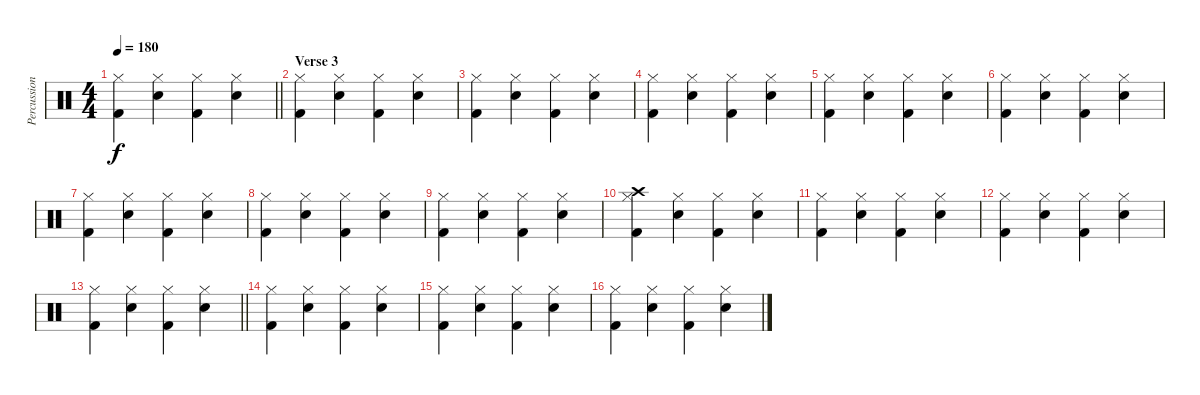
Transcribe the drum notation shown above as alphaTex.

\track ("Percussion" "Percussion") {instrument percussion}
\staff {score}
\articulation defaults
\ts (4 4)
\tempo 180
\clef neutral
\barLineRight lightlight
\ks c
("Hi-Hat (closed)" "Kick (hit) 2").4{dy f} ("Hi-Hat (closed)" "Electric Snare (hit)").4 ("Hi-Hat (closed)" "Kick (hit) 2").4 ("Hi-Hat (closed)" "Electric Snare (hit)").4 |
\section ("" "Verse 3")
("Hi-Hat (closed)" "Kick (hit) 2").4 ("Hi-Hat (closed)" "Electric Snare (hit)").4 ("Hi-Hat (closed)" "Kick (hit) 2").4 ("Hi-Hat (closed)" "Electric Snare (hit)").4 |
("Hi-Hat (closed)" "Kick (hit) 2").4 ("Hi-Hat (closed)" "Electric Snare (hit)").4 ("Hi-Hat (closed)" "Kick (hit) 2").4 ("Hi-Hat (closed)" "Electric Snare (hit)").4 |
("Hi-Hat (closed)" "Kick (hit) 2").4 ("Hi-Hat (closed)" "Electric Snare (hit)").4 ("Hi-Hat (closed)" "Kick (hit) 2").4 ("Hi-Hat (closed)" "Electric Snare (hit)").4 |
("Hi-Hat (closed)" "Kick (hit) 2").4 ("Hi-Hat (closed)" "Electric Snare (hit)").4 ("Hi-Hat (closed)" "Kick (hit) 2").4 ("Hi-Hat (closed)" "Electric Snare (hit)").4 |
("Hi-Hat (closed)" "Kick (hit) 2").4 ("Hi-Hat (closed)" "Electric Snare (hit)").4 ("Hi-Hat (closed)" "Kick (hit) 2").4 ("Hi-Hat (closed)" "Electric Snare (hit)").4 |
("Hi-Hat (closed)" "Kick (hit) 2").4 ("Hi-Hat (closed)" "Electric Snare (hit)").4 ("Hi-Hat (closed)" "Kick (hit) 2").4 ("Hi-Hat (closed)" "Electric Snare (hit)").4 |
("Hi-Hat (closed)" "Kick (hit) 2").4 ("Hi-Hat (closed)" "Electric Snare (hit)").4 ("Hi-Hat (closed)" "Kick (hit) 2").4 ("Hi-Hat (closed)" "Electric Snare (hit)").4 |
("Hi-Hat (closed)" "Kick (hit) 2").4 ("Hi-Hat (closed)" "Electric Snare (hit)").4 ("Hi-Hat (closed)" "Kick (hit) 2").4 ("Hi-Hat (closed)" "Electric Snare (hit)").4 |
("Hi-Hat (closed)" "Crash high (hit)" "Kick (hit) 2").4 ("Hi-Hat (closed)" "Electric Snare (hit)").4 ("Hi-Hat (closed)" "Kick (hit) 2").4 ("Hi-Hat (closed)" "Electric Snare (hit)").4 |
("Hi-Hat (closed)" "Kick (hit) 2").4 ("Hi-Hat (closed)" "Electric Snare (hit)").4 ("Hi-Hat (closed)" "Kick (hit) 2").4 ("Hi-Hat (closed)" "Electric Snare (hit)").4 |
("Hi-Hat (closed)" "Kick (hit) 2").4 ("Hi-Hat (closed)" "Electric Snare (hit)").4 ("Hi-Hat (closed)" "Kick (hit) 2").4 ("Hi-Hat (closed)" "Electric Snare (hit)").4 |
\barLineRight lightlight
("Hi-Hat (closed)" "Kick (hit) 2").4 ("Hi-Hat (closed)" "Electric Snare (hit)").4 ("Hi-Hat (closed)" "Kick (hit) 2").4 ("Hi-Hat (closed)" "Electric Snare (hit)").4 |
("Hi-Hat (closed)" "Kick (hit) 2").4 ("Hi-Hat (closed)" "Electric Snare (hit)").4 ("Hi-Hat (closed)" "Kick (hit) 2").4 ("Hi-Hat (closed)" "Electric Snare (hit)").4 |
("Hi-Hat (closed)" "Kick (hit) 2").4 ("Hi-Hat (closed)" "Electric Snare (hit)").4 ("Hi-Hat (closed)" "Kick (hit) 2").4 ("Hi-Hat (closed)" "Electric Snare (hit)").4 |
("Hi-Hat (closed)" "Kick (hit) 2").4 ("Hi-Hat (closed)" "Electric Snare (hit)").4 ("Hi-Hat (closed)" "Kick (hit) 2").4 ("Hi-Hat (closed)" "Electric Snare (hit)").4
